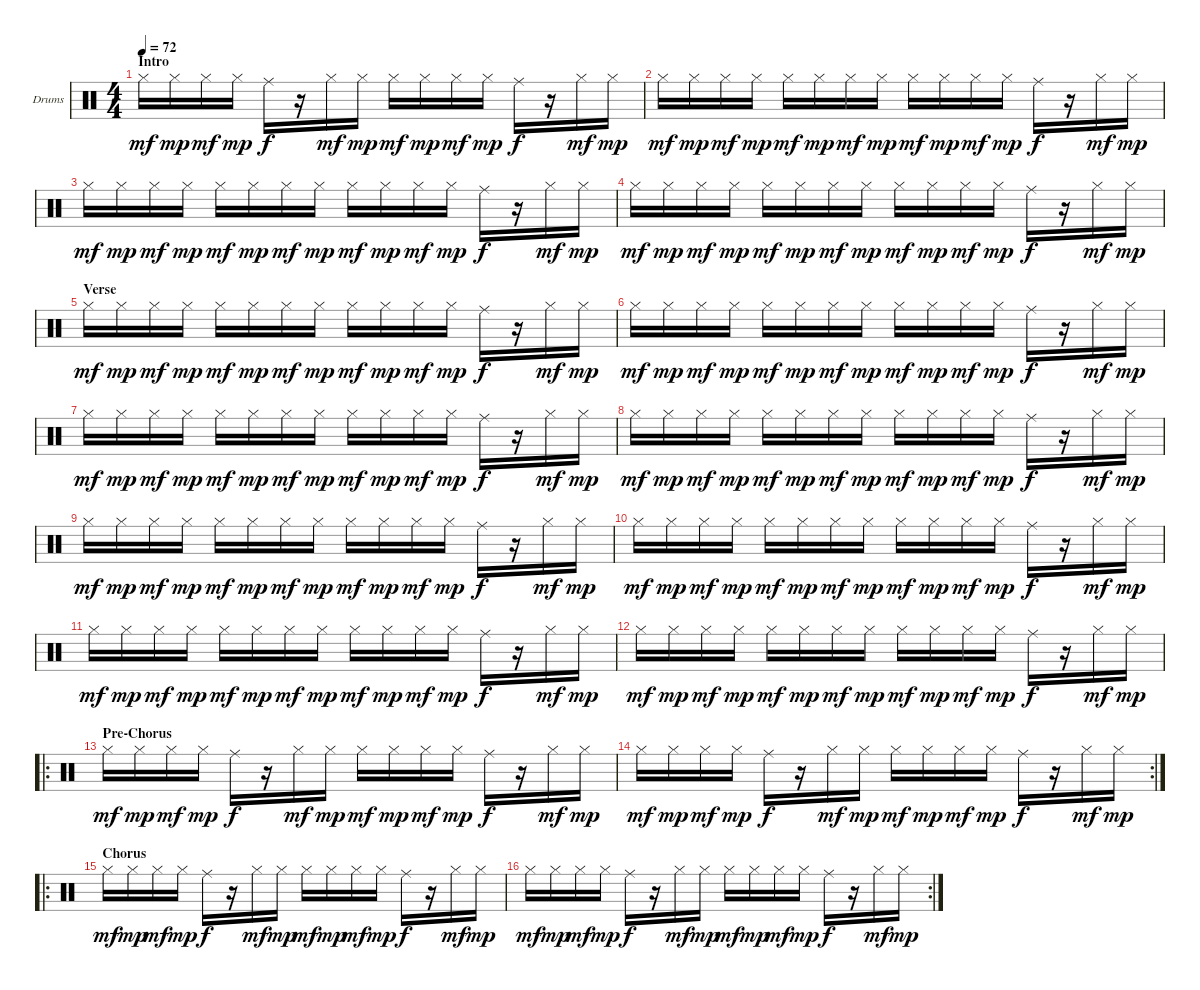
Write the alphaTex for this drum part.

\defaultSystemsLayout 4
\bracketExtendMode groupsimilarinstruments
\firstSystemTrackNameOrientation horizontal
\otherSystemsTrackNameOrientation horizontal
\track ("Drums" "Drums") {instrument percussion}
\staff {score}
\articulation defaults
\ts (4 4)
\section ("" "Intro")
\tempo 72
\clef neutral
\scale
0.474178
\ks c "Hi-Hat (closed)".16{dy mf} "Hi-Hat (closed)".16{dy mp} "Hi-Hat (closed)".16{dy mf} "Hi-Hat (closed)".16{dy mp} "Ride (middle)".16{dy f}
r.16 "Hi-Hat (closed)".16{dy mf} "Hi-Hat (closed)".16{dy mp} "Hi-Hat (closed)".16{dy mf} "Hi-Hat (closed)".16{dy mp} "Hi-Hat (closed)".16{dy mf} "Hi-Hat (closed)".16{dy mp} "Ride (middle)".16{dy f} r.16 "Hi-Hat (closed)".16{dy mf} "Hi-Hat (closed)".16{dy mp} |
\scale
0.262911 "Hi-Hat (closed)".16{dy mf} "Hi-Hat (closed)".16{dy mp} "Hi-Hat (closed)".16{dy mf} "Hi-Hat (closed)".16{dy mp} "Hi-Hat (closed)".16{dy mf} "Hi-Hat (closed)".16{dy mp} "Hi-Hat (closed)".16{dy mf} "Hi-Hat (closed)".16{dy mp} "Hi-Hat (closed)".16{dy mf} "Hi-Hat (closed)".16{dy mp} "Hi-Hat (closed)".16{dy mf} "Hi-Hat (closed)".16{dy mp} "Ride (middle)".16{dy f} r.16 "Hi-Hat (closed)".16{dy mf} "Hi-Hat (closed)".16{dy mp} |
\scale
0.262911 "Hi-Hat (closed)".16{dy mf} "Hi-Hat (closed)".16{dy mp} "Hi-Hat (closed)".16{dy mf} "Hi-Hat (closed)".16{dy mp} "Hi-Hat (closed)".16{dy mf} "Hi-Hat (closed)".16{dy mp} "Hi-Hat (closed)".16{dy mf} "Hi-Hat (closed)".16{dy mp} "Hi-Hat (closed)".16{dy mf} "Hi-Hat (closed)".16{dy mp} "Hi-Hat (closed)".16{dy mf} "Hi-Hat (closed)".16{dy mp} "Ride (middle)".16{dy f} r.16 "Hi-Hat (closed)".16{dy mf} "Hi-Hat (closed)".16{dy mp} |
\scale
0.333333 "Hi-Hat (closed)".16{dy mf} "Hi-Hat (closed)".16{dy mp} "Hi-Hat (closed)".16{dy mf} "Hi-Hat (closed)".16{dy mp} "Hi-Hat (closed)".16{dy mf} "Hi-Hat (closed)".16{dy mp} "Hi-Hat (closed)".16{dy mf} "Hi-Hat (closed)".16{dy mp} "Hi-Hat (closed)".16{dy mf} "Hi-Hat (closed)".16{dy mp} "Hi-Hat (closed)".16{dy mf} "Hi-Hat (closed)".16{dy mp} "Ride (middle)".16{dy f} r.16 "Hi-Hat (closed)".16{dy mf} "Hi-Hat (closed)".16{dy mp} |
\section ("" "Verse")
\scale
0.333333 "Hi-Hat (closed)".16{dy mf} "Hi-Hat (closed)".16{dy mp} "Hi-Hat (closed)".16{dy mf} "Hi-Hat (closed)".16{dy mp} "Hi-Hat (closed)".16{dy mf} "Hi-Hat (closed)".16{dy mp} "Hi-Hat (closed)".16{dy mf} "Hi-Hat (closed)".16{dy mp} "Hi-Hat (closed)".16{dy mf} "Hi-Hat (closed)".16{dy mp} "Hi-Hat (closed)".16{dy mf} "Hi-Hat (closed)".16{dy mp} "Ride (middle)".16{dy f} r.16 "Hi-Hat (closed)".16{dy mf} "Hi-Hat (closed)".16{dy mp} |
\scale
0.333333 "Hi-Hat (closed)".16{dy mf} "Hi-Hat (closed)".16{dy mp} "Hi-Hat (closed)".16{dy mf} "Hi-Hat (closed)".16{dy mp} "Hi-Hat (closed)".16{dy mf} "Hi-Hat (closed)".16{dy mp} "Hi-Hat (closed)".16{dy mf} "Hi-Hat (closed)".16{dy mp} "Hi-Hat (closed)".16{dy mf} "Hi-Hat (closed)".16{dy mp} "Hi-Hat (closed)".16{dy mf} "Hi-Hat (closed)".16{dy mp} "Ride (middle)".16{dy f} r.16 "Hi-Hat (closed)".16{dy mf} "Hi-Hat (closed)".16{dy mp} |
\scale
0.333333 "Hi-Hat (closed)".16{dy mf} "Hi-Hat (closed)".16{dy mp} "Hi-Hat (closed)".16{dy mf} "Hi-Hat (closed)".16{dy mp} "Hi-Hat (closed)".16{dy mf} "Hi-Hat (closed)".16{dy mp} "Hi-Hat (closed)".16{dy mf} "Hi-Hat (closed)".16{dy mp} "Hi-Hat (closed)".16{dy mf} "Hi-Hat (closed)".16{dy mp} "Hi-Hat (closed)".16{dy mf} "Hi-Hat (closed)".16{dy mp} "Ride (middle)".16{dy f} r.16 "Hi-Hat (closed)".16{dy mf} "Hi-Hat (closed)".16{dy mp} |
\scale
0.333333 "Hi-Hat (closed)".16{dy mf} "Hi-Hat (closed)".16{dy mp} "Hi-Hat (closed)".16{dy mf} "Hi-Hat (closed)".16{dy mp} "Hi-Hat (closed)".16{dy mf} "Hi-Hat (closed)".16{dy mp} "Hi-Hat (closed)".16{dy mf} "Hi-Hat (closed)".16{dy mp} "Hi-Hat (closed)".16{dy mf} "Hi-Hat (closed)".16{dy mp} "Hi-Hat (closed)".16{dy mf} "Hi-Hat (closed)".16{dy mp} "Ride (middle)".16{dy f} r.16 "Hi-Hat (closed)".16{dy mf} "Hi-Hat (closed)".16{dy mp} |
\scale
0.333333 "Hi-Hat (closed)".16{dy mf} "Hi-Hat (closed)".16{dy mp} "Hi-Hat (closed)".16{dy mf} "Hi-Hat (closed)".16{dy mp} "Hi-Hat (closed)".16{dy mf} "Hi-Hat (closed)".16{dy mp} "Hi-Hat (closed)".16{dy mf} "Hi-Hat (closed)".16{dy mp} "Hi-Hat (closed)".16{dy mf} "Hi-Hat (closed)".16{dy mp} "Hi-Hat (closed)".16{dy mf} "Hi-Hat (closed)".16{dy mp} "Ride (middle)".16{dy f} r.16 "Hi-Hat (closed)".16{dy mf} "Hi-Hat (closed)".16{dy mp} |
"Hi-Hat (closed)".16{dy mf} "Hi-Hat (closed)".16{dy mp} "Hi-Hat (closed)".16{dy mf} "Hi-Hat (closed)".16{dy mp} "Hi-Hat (closed)".16{dy mf} "Hi-Hat (closed)".16{dy mp} "Hi-Hat (closed)".16{dy mf} "Hi-Hat (closed)".16{dy mp} "Hi-Hat (closed)".16{dy mf} "Hi-Hat (closed)".16{dy mp} "Hi-Hat (closed)".16{dy mf} "Hi-Hat (closed)".16{dy mp} "Ride (middle)".16{dy f} r.16 "Hi-Hat (closed)".16{dy mf} "Hi-Hat (closed)".16{dy mp} |
"Hi-Hat (closed)".16{dy mf} "Hi-Hat (closed)".16{dy mp} "Hi-Hat (closed)".16{dy mf} "Hi-Hat (closed)".16{dy mp} "Hi-Hat (closed)".16{dy mf} "Hi-Hat (closed)".16{dy mp} "Hi-Hat (closed)".16{dy mf} "Hi-Hat (closed)".16{dy mp} "Hi-Hat (closed)".16{dy mf} "Hi-Hat (closed)".16{dy mp} "Hi-Hat (closed)".16{dy mf} "Hi-Hat (closed)".16{dy mp} "Ride (middle)".16{dy f} r.16 "Hi-Hat (closed)".16{dy mf} "Hi-Hat (closed)".16{dy mp} |
"Hi-Hat (closed)".16{dy mf} "Hi-Hat (closed)".16{dy mp} "Hi-Hat (closed)".16{dy mf} "Hi-Hat (closed)".16{dy mp} "Hi-Hat (closed)".16{dy mf} "Hi-Hat (closed)".16{dy mp} "Hi-Hat (closed)".16{dy mf} "Hi-Hat (closed)".16{dy mp} "Hi-Hat (closed)".16{dy mf} "Hi-Hat (closed)".16{dy mp} "Hi-Hat (closed)".16{dy mf} "Hi-Hat (closed)".16{dy mp} "Ride (middle)".16{dy f} r.16 "Hi-Hat (closed)".16{dy mf} "Hi-Hat (closed)".16{dy mp} |
\ro
\section ("" "Pre-Chorus")
"Hi-Hat (closed)".16{dy mf} "Hi-Hat (closed)".16{dy mp} "Hi-Hat (closed)".16{dy mf} "Hi-Hat (closed)".16{dy mp} "Ride (middle)".16{dy f} r.16 "Hi-Hat (closed)".16{dy mf} "Hi-Hat (closed)".16{dy mp} "Hi-Hat (closed)".16{dy mf} "Hi-Hat (closed)".16{dy mp} "Hi-Hat (closed)".16{dy mf} "Hi-Hat (closed)".16{dy mp} "Ride (middle)".16{dy f} r.16 "Hi-Hat (closed)".16{dy mf} "Hi-Hat (closed)".16{dy mp} |
\rc 2 "Hi-Hat (closed)".16{dy mf} "Hi-Hat (closed)".16{dy mp} "Hi-Hat (closed)".16{dy mf} "Hi-Hat (closed)".16{dy mp} "Ride (middle)".16{dy f}
r.16 "Hi-Hat (closed)".16{dy mf} "Hi-Hat (closed)".16{dy mp} "Hi-Hat (closed)".16{dy mf} "Hi-Hat (closed)".16{dy mp} "Hi-Hat (closed)".16{dy mf} "Hi-Hat (closed)".16{dy mp} "Ride (middle)".16{dy f} r.16 "Hi-Hat (closed)".16{dy mf} "Hi-Hat (closed)".16{dy mp} |
\ro
\section ("" "Chorus")
"Hi-Hat (closed)".16{dy mf} "Hi-Hat (closed)".16{dy mp} "Hi-Hat (closed)".16{dy mf} "Hi-Hat (closed)".16{dy mp} "Ride (middle)".16{dy f} r.16 "Hi-Hat (closed)".16{dy mf} "Hi-Hat (closed)".16{dy mp} "Hi-Hat (closed)".16{dy mf} "Hi-Hat (closed)".16{dy mp} "Hi-Hat (closed)".16{dy mf} "Hi-Hat (closed)".16{dy mp} "Ride (middle)".16{dy f} r.16 "Hi-Hat (closed)".16{dy mf} "Hi-Hat (closed)".16{dy mp} |
\rc 2 "Hi-Hat (closed)".16{dy mf} "Hi-Hat (closed)".16{dy mp} "Hi-Hat (closed)".16{dy mf} "Hi-Hat (closed)".16{dy mp} "Ride (middle)".16{dy f}
r.16 "Hi-Hat (closed)".16{dy mf} "Hi-Hat (closed)".16{dy mp} "Hi-Hat (closed)".16{dy mf} "Hi-Hat (closed)".16{dy mp} "Hi-Hat (closed)".16{dy mf} "Hi-Hat (closed)".16{dy mp} "Ride (middle)".16{dy f} r.16 "Hi-Hat (closed)".16{dy mf} "Hi-Hat (closed)".16{dy mp}
